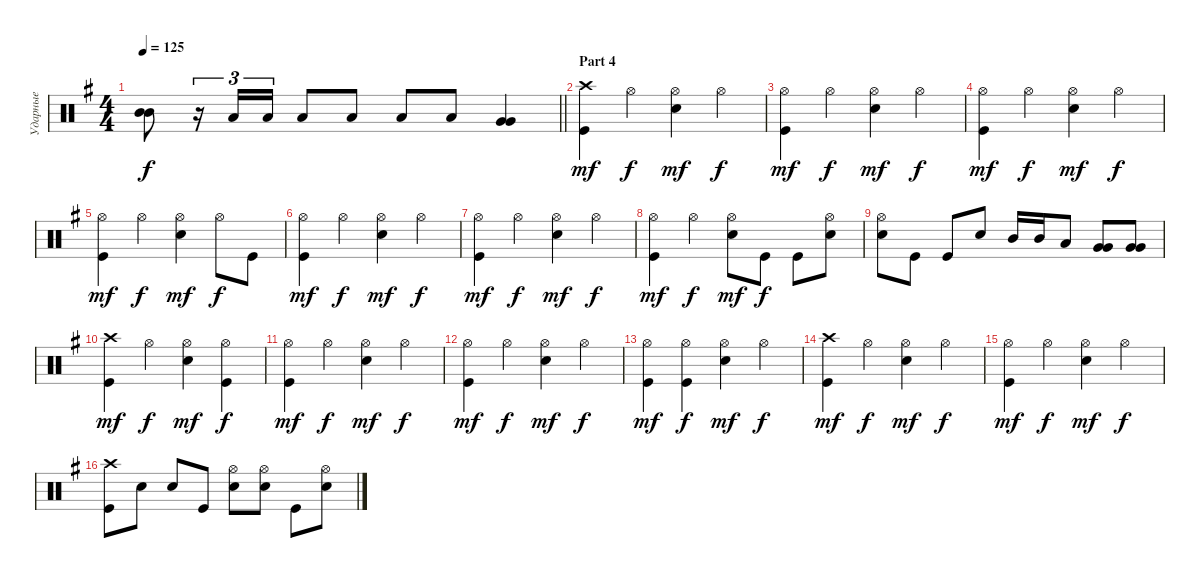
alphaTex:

\track ("Ударные" "Ударные") {instrument percussion}
\staff {score}
\articulation defaults
\ts (4 4)
\tempo 125
\clef neutral
\barLineRight lightlight
\ks eminor
("Mid Tom (hit)" "Mid Tom (hit)").8{bd 240 dy f} r.16{tu (3 2)} "Low Tom (hit)".16{tu (3 2)} "Low Tom (hit)".16{tu (3 2)} "Low Tom (hit)".8 "Low Tom (hit)".8 "Low Tom (hit)".8 "Low Tom (hit)".8 ("Very Low Tom (hit)" "Very Low Tom (hit)").4{bd 240} |
\section ("" "Part 4")
("Kick (hit)" "Crash high (hit)").4{dy mf} "Hi-Hat (open)".4{dy f} ("Hi-Hat (open)" "Snare (hit) 2").4{dy mf} "Hi-Hat (open)".4{dy f} |
("Kick (hit)" "Hi-Hat (open)").4{dy mf} "Hi-Hat (open)".4{dy f} ("Hi-Hat (open)" "Snare (hit) 2").4{dy mf} "Hi-Hat (open)".4{dy f} |
("Kick (hit)" "Hi-Hat (open)").4{dy mf} "Hi-Hat (open)".4{dy f} ("Hi-Hat (open)" "Snare (hit) 2").4{dy mf} "Hi-Hat (open)".4{dy f} |
("Kick (hit)" "Hi-Hat (open)").4{dy mf} "Hi-Hat (open)".4{dy f} ("Hi-Hat (open)" "Snare (hit) 2").4{dy mf} "Hi-Hat (open)".8{dy f} "Kick (hit)".8 |
("Kick (hit)" "Hi-Hat (open)").4{dy mf} "Hi-Hat (open)".4{dy f} ("Hi-Hat (open)" "Snare (hit) 2").4{dy mf} "Hi-Hat (open)".4{dy f} |
("Kick (hit)" "Hi-Hat (open)").4{dy mf} "Hi-Hat (open)".4{dy f} ("Hi-Hat (open)" "Snare (hit) 2").4{dy mf} "Hi-Hat (open)".4{dy f} |
("Kick (hit)" "Hi-Hat (open)").4{dy mf} "Hi-Hat (open)".4{dy f} ("Hi-Hat (open)" "Snare (hit) 2").8{dy mf} "Kick (hit)".8{dy f} "Kick (hit)".8 ("Snare (hit) 2" "Hi-Hat (open)").8 |
("Snare (hit) 2" "Hi-Hat (open)").8 "Kick (hit)".8 "Kick (hit)".8 "Snare (hit) 2".8 "Mid Tom (hit)".16 "Mid Tom (hit)".16 "Low Tom (hit)".8 ("Very Low Tom (hit)" "Very Low Tom (hit)").8{bd 120} ("Very Low Tom (hit)" "Very Low Tom (hit)").8{bd 120} |
("Kick (hit)" "Crash high (hit)").4{dy mf} "Hi-Hat (open)".4{dy f} ("Hi-Hat (open)" "Snare (hit) 2").4{dy mf} ("Hi-Hat (open)" "Kick (hit)").4{dy f} |
("Kick (hit)" "Hi-Hat (open)").4{dy mf} "Hi-Hat (open)".4{dy f} ("Hi-Hat (open)" "Snare (hit) 2").4{dy mf} "Hi-Hat (open)".4{dy f} |
("Kick (hit)" "Hi-Hat (open)").4{dy mf} "Hi-Hat (open)".4{dy f} ("Hi-Hat (open)" "Snare (hit) 2").4{dy mf} "Hi-Hat (open)".4{dy f} |
("Kick (hit)" "Hi-Hat (open)").4{dy mf} ("Hi-Hat (open)" "Kick (hit)").4{dy f} ("Hi-Hat (open)" "Snare (hit) 2").4{dy mf} "Hi-Hat (open)".4{dy f} |
("Kick (hit)" "Crash high (hit)").4{dy mf} "Hi-Hat (open)".4{dy f} ("Hi-Hat (open)" "Snare (hit) 2").4{dy mf} "Hi-Hat (open)".4{dy f} |
("Kick (hit)" "Hi-Hat (open)").4{dy mf} "Hi-Hat (open)".4{dy f} ("Hi-Hat (open)" "Snare (hit) 2").4{dy mf} "Hi-Hat (open)".4{dy f} |
("Kick (hit)" "Crash high (hit)").8 "Snare (hit) 2".8 "Snare (hit) 2".8 "Kick (hit)".8 ("Snare (hit) 2" "Hi-Hat (open)").8 ("Snare (hit) 2" "Hi-Hat (open)").8 "Kick (hit)".8 ("Snare (hit) 2" "Hi-Hat (open)").8
